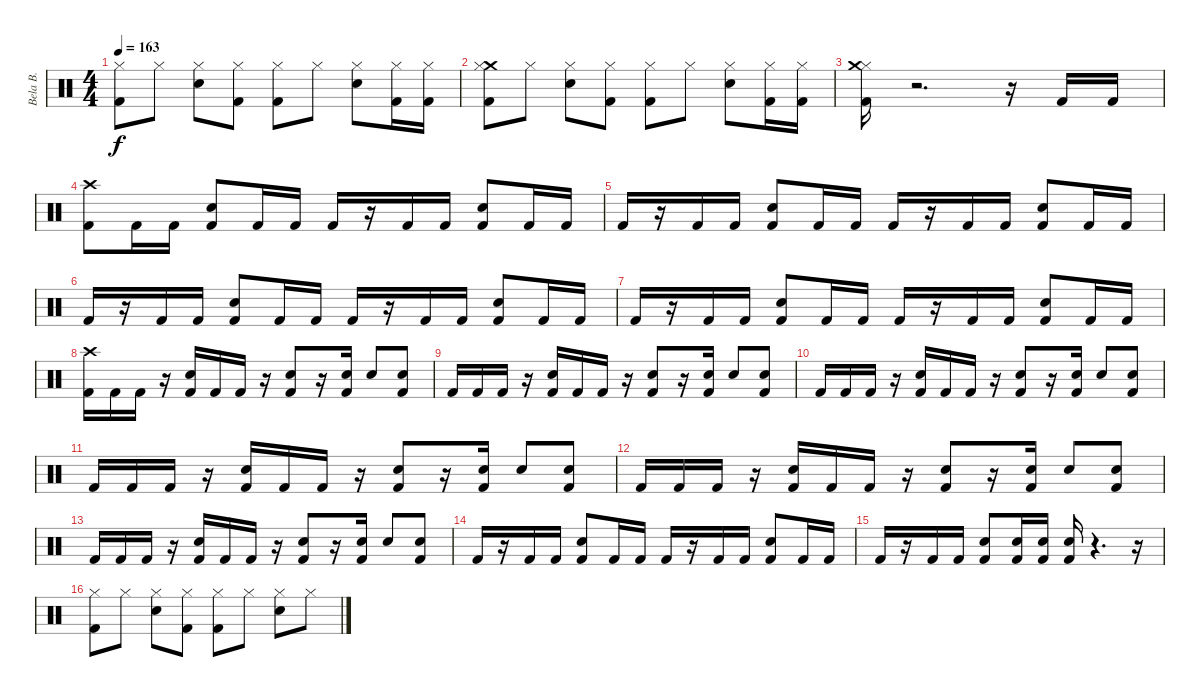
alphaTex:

\track ("Bela B." "Bela B.") {instrument percussion}
\staff {score}
\articulation defaults
\ts (4 4)
\tempo 163
\clef neutral
\ks c
("Kick (hit) 2" "Hi-Hat (closed)").8{dy f} "Hi-Hat (closed)".8 ("Snare (hit) 2" "Hi-Hat (closed)").8 ("Hi-Hat (closed)" "Kick (hit) 2").8 ("Hi-Hat (closed)" "Kick (hit) 2").8 "Hi-Hat (closed)".8 ("Snare (hit) 2" "Hi-Hat (closed)").8 ("Kick (hit) 2" "Hi-Hat (closed)").16 ("Hi-Hat (closed)" "Kick (hit) 2").16 |
("Crash medium (hit)" "Kick (hit) 2" "Hi-Hat (closed)").8 "Hi-Hat (closed)".8 ("Snare (hit) 2" "Hi-Hat (closed)").8 ("Hi-Hat (closed)" "Kick (hit) 2").8 ("Hi-Hat (closed)" "Kick (hit) 2").8 "Hi-Hat (closed)".8 ("Snare (hit) 2" "Hi-Hat (closed)").8 ("Kick (hit) 2" "Hi-Hat (closed)").16 ("Hi-Hat (closed)" "Kick (hit) 2").16 |
("Hi-Hat (closed)" "Kick (hit) 2" "Crash medium (hit)").16 r.2{d} r.16 "Kick (hit) 2".16 "Kick (hit) 2".16 |
("Crash high (hit)" "Kick (hit) 2").8 "Kick (hit) 2".16 "Kick (hit) 2".16 ("Snare (hit) 2" "Kick (hit) 2").8 "Kick (hit) 2".16 "Kick (hit) 2".16 "Kick (hit) 2".16 r.16 "Kick (hit) 2".16 "Kick (hit) 2".16 ("Snare (hit) 2" "Kick (hit) 2").8 "Kick (hit) 2".16 "Kick (hit) 2".16 |
"Kick (hit) 2".16 r.16 "Kick (hit) 2".16 "Kick (hit) 2".16 ("Kick (hit) 2" "Snare (hit) 2").8 "Kick (hit) 2".16 "Kick (hit) 2".16 "Kick (hit) 2".16 r.16 "Kick (hit) 2".16 "Kick (hit) 2".16 ("Kick (hit) 2" "Snare (hit) 2").8 "Kick (hit) 2".16 "Kick (hit) 2".16 |
"Kick (hit) 2".16 r.16 "Kick (hit) 2".16 "Kick (hit) 2".16 ("Kick (hit) 2" "Snare (hit) 2").8 "Kick (hit) 2".16 "Kick (hit) 2".16 "Kick (hit) 2".16 r.16 "Kick (hit) 2".16 "Kick (hit) 2".16 ("Kick (hit) 2" "Snare (hit) 2").8 "Kick (hit) 2".16 "Kick (hit) 2".16 |
"Kick (hit) 2".16 r.16 "Kick (hit) 2".16 "Kick (hit) 2".16 ("Kick (hit) 2" "Snare (hit) 2").8 "Kick (hit) 2".16 "Kick (hit) 2".16 "Kick (hit) 2".16 r.16 "Kick (hit) 2".16 "Kick (hit) 2".16 ("Kick (hit) 2" "Snare (hit) 2").8 "Kick (hit) 2".16 "Kick (hit) 2".16 |
("Crash high (hit)" "Kick (hit) 2").16 "Kick (hit) 2".16 "Kick (hit) 2".16 r.16 ("Snare (hit) 2" "Kick (hit) 2").16 "Kick (hit) 2".16 "Kick (hit) 2".16 r.16 ("Kick (hit) 2" "Hand Clap (hit)").8 r.16 ("Kick (hit) 2" "Hand Clap (hit)").16 "Snare (hit) 2".8 ("Kick (hit) 2" "Hand Clap (hit)").8 |
"Kick (hit) 2".16 "Kick (hit) 2".16 "Kick (hit) 2".16 r.16 ("Snare (hit) 2" "Kick (hit) 2").16 "Kick (hit) 2".16 "Kick (hit) 2".16 r.16 ("Kick (hit) 2" "Hand Clap (hit)").8 r.16 ("Hand Clap (hit)" "Kick (hit) 2").16 "Snare (hit) 2".8 ("Kick (hit) 2" "Hand Clap (hit)").8 |
"Kick (hit) 2".16 "Kick (hit) 2".16 "Kick (hit) 2".16 r.16 ("Kick (hit) 2" "Snare (hit) 2").16 "Kick (hit) 2".16 "Kick (hit) 2".16 r.16 ("Kick (hit) 2" "Hand Clap (hit)").8 r.16 ("Kick (hit) 2" "Hand Clap (hit)").16 "Snare (hit) 2".8 ("Kick (hit) 2" "Hand Clap (hit)").8 |
"Kick (hit) 2".16 "Kick (hit) 2".16 "Kick (hit) 2".16 r.16 ("Kick (hit) 2" "Snare (hit) 2").16 "Kick (hit) 2".16 "Kick (hit) 2".16 r.16 ("Kick (hit) 2" "Hand Clap (hit)").8 r.16 ("Kick (hit) 2" "Hand Clap (hit)").16 "Snare (hit) 2".8 ("Kick (hit) 2" "Hand Clap (hit)").8 |
"Kick (hit) 2".16 "Kick (hit) 2".16 "Kick (hit) 2".16 r.16 ("Kick (hit) 2" "Snare (hit) 2").16 "Kick (hit) 2".16 "Kick (hit) 2".16 r.16 ("Kick (hit) 2" "Hand Clap (hit)").8 r.16 ("Kick (hit) 2" "Hand Clap (hit)").16 "Snare (hit) 2".8 ("Kick (hit) 2" "Hand Clap (hit)").8 |
"Kick (hit) 2".16 "Kick (hit) 2".16 "Kick (hit) 2".16 r.16 ("Kick (hit) 2" "Snare (hit) 2").16 "Kick (hit) 2".16 "Kick (hit) 2".16 r.16 ("Kick (hit) 2" "Hand Clap (hit)").8 r.16 ("Kick (hit) 2" "Hand Clap (hit)").16 "Snare (hit) 2".8 ("Kick (hit) 2" "Hand Clap (hit)").8 |
"Kick (hit) 2".16 r.16 "Kick (hit) 2".16 "Kick (hit) 2".16 ("Kick (hit) 2" "Snare (hit) 2").8 "Kick (hit) 2".16 "Kick (hit) 2".16 "Kick (hit) 2".16 r.16 "Kick (hit) 2".16 "Kick (hit) 2".16 ("Kick (hit) 2" "Snare (hit) 2").8 "Kick (hit) 2".16 "Kick (hit) 2".16 |
"Kick (hit) 2".16 r.16 "Kick (hit) 2".16 "Kick (hit) 2".16 ("Kick (hit) 2" "Snare (hit) 2").8 ("Snare (hit) 2" "Kick (hit) 2").16 ("Snare (hit) 2" "Kick (hit) 2").16 ("Snare (hit) 2" "Kick (hit) 2").16 r.4{d} r.16 |
("Hi-Hat (closed)" "Kick (hit) 2").8 "Hi-Hat (closed)".8 ("Hi-Hat (closed)" "Snare (hit) 2").8 ("Hi-Hat (closed)" "Kick (hit) 2").8 ("Hi-Hat (closed)" "Kick (hit) 2").8 "Hi-Hat (closed)".8 ("Hi-Hat (closed)" "Snare (hit) 2").8 "Hi-Hat (closed)".8
